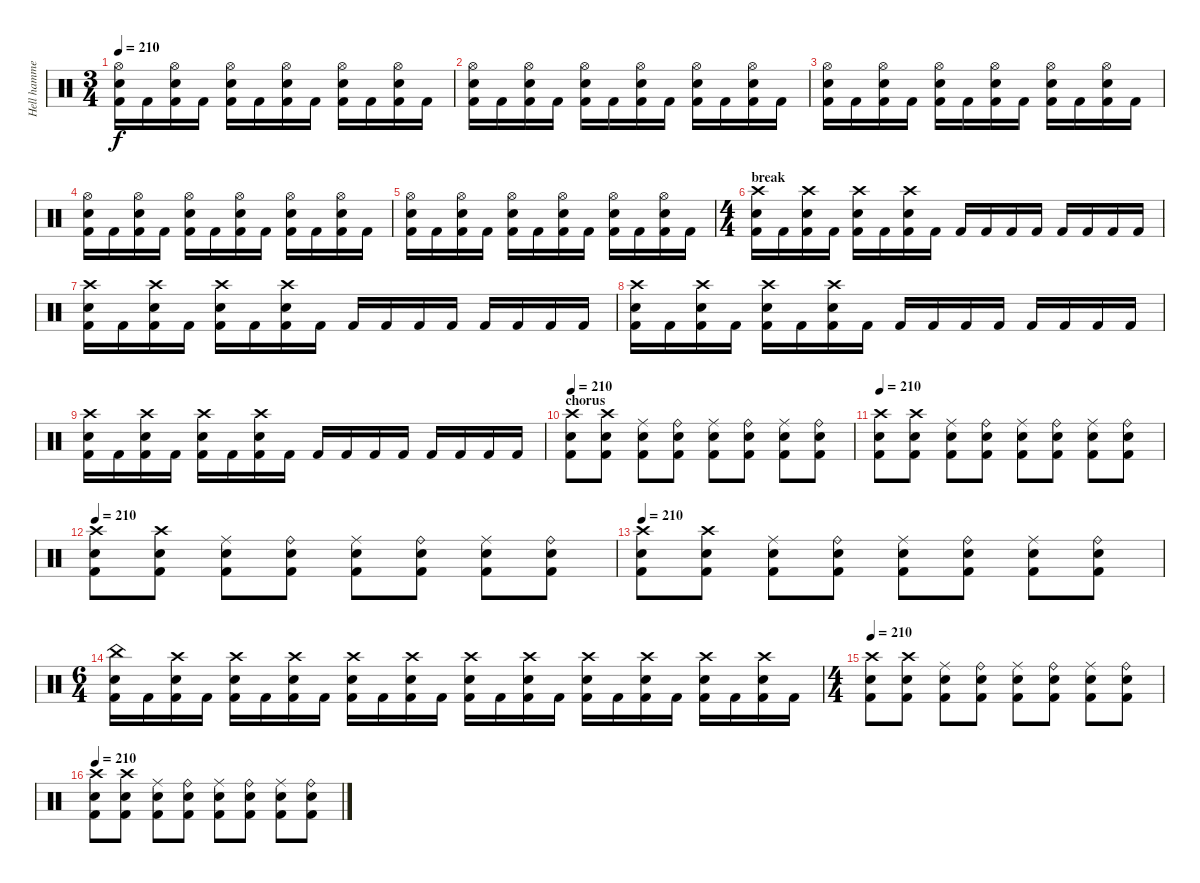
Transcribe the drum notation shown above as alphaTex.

\track ("Hell hammers" "Hell hamme") {instrument percussion}
\staff {score}
\articulation defaults
\ts (3 4)
\tempo 210
\clef neutral
\ks c
("Hi-Hat (open)" "Snare (hit) 2" "Kick (hit) 2").16{dy f} "Kick (hit) 2".16 ("Hi-Hat (open)" "Snare (hit) 2" "Kick (hit) 2").16 "Kick (hit) 2".16 ("Hi-Hat (open)" "Snare (hit) 2" "Kick (hit) 2").16 "Kick (hit) 2".16 ("Hi-Hat (open)" "Snare (hit) 2" "Kick (hit) 2").16 "Kick (hit) 2".16 ("Hi-Hat (open)" "Snare (hit) 2" "Kick (hit) 2").16 "Kick (hit) 2".16 ("Hi-Hat (open)" "Snare (hit) 2" "Kick (hit) 2").16 "Kick (hit) 2".16 |
("Hi-Hat (open)" "Snare (hit) 2" "Kick (hit) 2").16 "Kick (hit) 2".16 ("Hi-Hat (open)" "Snare (hit) 2" "Kick (hit) 2").16 "Kick (hit) 2".16 ("Hi-Hat (open)" "Snare (hit) 2" "Kick (hit) 2").16 "Kick (hit) 2".16 ("Hi-Hat (open)" "Snare (hit) 2" "Kick (hit) 2").16 "Kick (hit) 2".16 ("Hi-Hat (open)" "Snare (hit) 2" "Kick (hit) 2").16 "Kick (hit) 2".16 ("Hi-Hat (open)" "Snare (hit) 2" "Kick (hit) 2").16 "Kick (hit) 2".16 |
("Hi-Hat (open)" "Snare (hit) 2" "Kick (hit) 2").16 "Kick (hit) 2".16 ("Hi-Hat (open)" "Snare (hit) 2" "Kick (hit) 2").16 "Kick (hit) 2".16 ("Hi-Hat (open)" "Snare (hit) 2" "Kick (hit) 2").16 "Kick (hit) 2".16 ("Hi-Hat (open)" "Snare (hit) 2" "Kick (hit) 2").16 "Kick (hit) 2".16 ("Hi-Hat (open)" "Snare (hit) 2" "Kick (hit) 2").16 "Kick (hit) 2".16 ("Hi-Hat (open)" "Snare (hit) 2" "Kick (hit) 2").16 "Kick (hit) 2".16 |
("Hi-Hat (open)" "Snare (hit) 2" "Kick (hit) 2").16 "Kick (hit) 2".16 ("Hi-Hat (open)" "Snare (hit) 2" "Kick (hit) 2").16 "Kick (hit) 2".16 ("Hi-Hat (open)" "Snare (hit) 2" "Kick (hit) 2").16 "Kick (hit) 2".16 ("Hi-Hat (open)" "Snare (hit) 2" "Kick (hit) 2").16 "Kick (hit) 2".16 ("Hi-Hat (open)" "Snare (hit) 2" "Kick (hit) 2").16 "Kick (hit) 2".16 ("Hi-Hat (open)" "Snare (hit) 2" "Kick (hit) 2").16 "Kick (hit) 2".16 |
("Hi-Hat (open)" "Snare (hit) 2" "Kick (hit) 2").16 "Kick (hit) 2".16 ("Hi-Hat (open)" "Snare (hit) 2" "Kick (hit) 2").16 "Kick (hit) 2".16 ("Hi-Hat (open)" "Snare (hit) 2" "Kick (hit) 2").16 "Kick (hit) 2".16 ("Hi-Hat (open)" "Snare (hit) 2" "Kick (hit) 2").16 "Kick (hit) 2".16 ("Hi-Hat (open)" "Snare (hit) 2" "Kick (hit) 2").16 "Kick (hit) 2".16 ("Hi-Hat (open)" "Snare (hit) 2" "Kick (hit) 2").16 "Kick (hit) 2".16 |
\ts (4 4)
\section ("" "break")
("Crash high (hit)" "Snare (hit) 2" "Kick (hit) 2").16 "Kick (hit) 2".16 ("Crash high (hit)" "Snare (hit) 2" "Kick (hit) 2").16 "Kick (hit) 2".16 ("Crash high (hit)" "Snare (hit) 2" "Kick (hit) 2").16 "Kick (hit) 2".16 ("Crash high (hit)" "Snare (hit) 2" "Kick (hit) 2").16 "Kick (hit) 2".16 "Kick (hit) 2".16 "Kick (hit) 2".16 "Kick (hit) 2".16 "Kick (hit) 2".16 "Kick (hit) 2".16 "Kick (hit) 2".16 "Kick (hit) 2".16 "Kick (hit) 2".16 |
("Crash high (hit)" "Snare (hit) 2" "Kick (hit) 2").16 "Kick (hit) 2".16 ("Crash high (hit)" "Snare (hit) 2" "Kick (hit) 2").16 "Kick (hit) 2".16 ("Crash high (hit)" "Snare (hit) 2" "Kick (hit) 2").16 "Kick (hit) 2".16 ("Crash high (hit)" "Snare (hit) 2" "Kick (hit) 2").16 "Kick (hit) 2".16 "Kick (hit) 2".16 "Kick (hit) 2".16 "Kick (hit) 2".16 "Kick (hit) 2".16 "Kick (hit) 2".16 "Kick (hit) 2".16 "Kick (hit) 2".16 "Kick (hit) 2".16 |
("Crash high (hit)" "Snare (hit) 2" "Kick (hit) 2").16 "Kick (hit) 2".16 ("Crash high (hit)" "Snare (hit) 2" "Kick (hit) 2").16 "Kick (hit) 2".16 ("Crash high (hit)" "Snare (hit) 2" "Kick (hit) 2").16 "Kick (hit) 2".16 ("Crash high (hit)" "Snare (hit) 2" "Kick (hit) 2").16 "Kick (hit) 2".16 "Kick (hit) 2".16 "Kick (hit) 2".16 "Kick (hit) 2".16 "Kick (hit) 2".16 "Kick (hit) 2".16 "Kick (hit) 2".16 "Kick (hit) 2".16 "Kick (hit) 2".16 |
("Crash high (hit)" "Snare (hit) 2" "Kick (hit) 2").16 "Kick (hit) 2".16 ("Crash high (hit)" "Snare (hit) 2" "Kick (hit) 2").16 "Kick (hit) 2".16 ("Crash high (hit)" "Snare (hit) 2" "Kick (hit) 2").16 "Kick (hit) 2".16 ("Crash high (hit)" "Snare (hit) 2" "Kick (hit) 2").16 "Kick (hit) 2".16 "Kick (hit) 2".16 "Kick (hit) 2".16 "Kick (hit) 2".16 "Kick (hit) 2".16 "Kick (hit) 2".16 "Kick (hit) 2".16 "Kick (hit) 2".16 "Kick (hit) 2".16 |
\section ("" "chorus")
\tempo 210
("Crash high (hit)" "Snare (hit) 2" "Kick (hit) 2").8 ("Crash high (hit)" "Snare (hit) 2" "Kick (hit) 2").8 ("Ride (middle)" "Snare (hit) 2" "Kick (hit) 2").8 ("Ride (bell)" "Snare (hit) 2" "Kick (hit) 2").8 ("Ride (middle)" "Snare (hit) 2" "Kick (hit) 2").8 ("Ride (bell)" "Snare (hit) 2" "Kick (hit) 2").8 ("Ride (middle)" "Snare (hit) 2" "Kick (hit) 2").8 ("Ride (bell)" "Snare (hit) 2" "Kick (hit) 2").8 |
\tempo 210
("Crash high (hit)" "Snare (hit) 2" "Kick (hit) 2").8 ("Crash high (hit)" "Snare (hit) 2" "Kick (hit) 2").8 ("Ride (middle)" "Snare (hit) 2" "Kick (hit) 2").8 ("Ride (bell)" "Snare (hit) 2" "Kick (hit) 2").8 ("Ride (middle)" "Snare (hit) 2" "Kick (hit) 2").8 ("Ride (bell)" "Snare (hit) 2" "Kick (hit) 2").8 ("Ride (middle)" "Snare (hit) 2" "Kick (hit) 2").8 ("Ride (bell)" "Snare (hit) 2" "Kick (hit) 2").8 |
\tempo 210
("Crash high (hit)" "Snare (hit) 2" "Kick (hit) 2").8 ("Crash high (hit)" "Snare (hit) 2" "Kick (hit) 2").8 ("Ride (middle)" "Snare (hit) 2" "Kick (hit) 2").8 ("Ride (bell)" "Snare (hit) 2" "Kick (hit) 2").8 ("Ride (middle)" "Snare (hit) 2" "Kick (hit) 2").8 ("Ride (bell)" "Snare (hit) 2" "Kick (hit) 2").8 ("Ride (middle)" "Snare (hit) 2" "Kick (hit) 2").8 ("Ride (bell)" "Snare (hit) 2" "Kick (hit) 2").8 |
\tempo 210
("Crash high (hit)" "Snare (hit) 2" "Kick (hit) 2").8 ("Crash high (hit)" "Snare (hit) 2" "Kick (hit) 2").8 ("Ride (middle)" "Snare (hit) 2" "Kick (hit) 2").8 ("Ride (bell)" "Snare (hit) 2" "Kick (hit) 2").8 ("Ride (middle)" "Snare (hit) 2" "Kick (hit) 2").8 ("Ride (bell)" "Snare (hit) 2" "Kick (hit) 2").8 ("Ride (middle)" "Snare (hit) 2" "Kick (hit) 2").8 ("Ride (bell)" "Snare (hit) 2" "Kick (hit) 2").8 |
\ts (6 4)
("China (hit)" "Snare (hit) 2" "Kick (hit) 2").16 "Kick (hit) 2".16 ("Crash high (hit)" "Snare (hit) 2" "Kick (hit) 2").16 "Kick (hit) 2".16 ("Crash high (hit)" "Snare (hit) 2" "Kick (hit) 2").16 "Kick (hit) 2".16 ("Crash high (hit)" "Snare (hit) 2" "Kick (hit) 2").16 "Kick (hit) 2".16 ("Crash high (hit)" "Snare (hit) 2" "Kick (hit) 2").16 "Kick (hit) 2".16 ("Crash high (hit)" "Snare (hit) 2" "Kick (hit) 2").16 "Kick (hit) 2".16 ("Crash high (hit)" "Snare (hit) 2" "Kick (hit) 2").16 "Kick (hit) 2".16 ("Crash high (hit)" "Snare (hit) 2" "Kick (hit) 2").16 "Kick (hit) 2".16 ("Crash high (hit)" "Snare (hit) 2" "Kick (hit) 2").16 "Kick (hit) 2".16 ("Crash high (hit)" "Snare (hit) 2" "Kick (hit) 2").16 "Kick (hit) 2".16 ("Crash high (hit)" "Snare (hit) 2" "Kick (hit) 2").16 "Kick (hit) 2".16 ("Crash high (hit)" "Snare (hit) 2" "Kick (hit) 2").16 "Kick (hit) 2".16 |
\ts (4 4)
\tempo 210
("Crash high (hit)" "Snare (hit) 2" "Kick (hit) 2").8 ("Crash high (hit)" "Snare (hit) 2" "Kick (hit) 2").8 ("Ride (middle)" "Snare (hit) 2" "Kick (hit) 2").8 ("Ride (bell)" "Snare (hit) 2" "Kick (hit) 2").8 ("Ride (middle)" "Snare (hit) 2" "Kick (hit) 2").8 ("Ride (bell)" "Snare (hit) 2" "Kick (hit) 2").8 ("Ride (middle)" "Snare (hit) 2" "Kick (hit) 2").8 ("Ride (bell)" "Snare (hit) 2" "Kick (hit) 2").8 |
\tempo 210
("Crash high (hit)" "Snare (hit) 2" "Kick (hit) 2").8 ("Crash high (hit)" "Snare (hit) 2" "Kick (hit) 2").8 ("Ride (middle)" "Snare (hit) 2" "Kick (hit) 2").8 ("Ride (bell)" "Snare (hit) 2" "Kick (hit) 2").8 ("Ride (middle)" "Snare (hit) 2" "Kick (hit) 2").8 ("Ride (bell)" "Snare (hit) 2" "Kick (hit) 2").8 ("Ride (middle)" "Snare (hit) 2" "Kick (hit) 2").8 ("Ride (bell)" "Snare (hit) 2" "Kick (hit) 2").8
